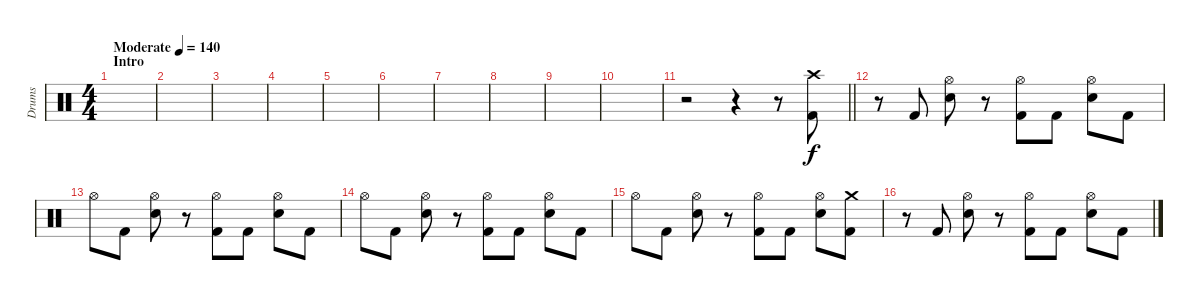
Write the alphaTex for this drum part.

\track ("Drums" "Drums") {instrument percussion}
\staff {score}
\articulation defaults
\ts (4 4)
\section ("" "Intro")
\tempo (140 "Moderate")
\clef neutral
\ks c
|
|
|
|
|
|
|
|
|
|
\barLineRight lightlight
r.2 r.4 r.8 ("Crash high (hit)" "Kick (hit) 2").8 |
\section ("" "")
r.8 "Kick (hit) 2".8 ("Hi-Hat (open)" "Electric Snare (hit)").8 r.8 ("Hi-Hat (open)" "Kick (hit) 2").8 "Kick (hit) 2".8 ("Hi-Hat (open)" "Electric Snare (hit)").8 "Kick (hit) 2".8 |
"Hi-Hat (open)".8 "Kick (hit) 2".8 ("Hi-Hat (open)" "Electric Snare (hit)").8 r.8 ("Hi-Hat (open)" "Kick (hit) 2").8 "Kick (hit) 2".8 ("Hi-Hat (open)" "Electric Snare (hit)").8 "Kick (hit) 2".8 |
"Hi-Hat (open)".8 "Kick (hit) 2".8 ("Hi-Hat (open)" "Electric Snare (hit)").8 r.8 ("Hi-Hat (open)" "Kick (hit) 2").8 "Kick (hit) 2".8 ("Hi-Hat (open)" "Electric Snare (hit)").8 "Kick (hit) 2".8 |
"Hi-Hat (open)".8 "Kick (hit) 2".8 ("Hi-Hat (open)" "Electric Snare (hit)").8 r.8 ("Hi-Hat (open)" "Kick (hit) 2").8 "Kick (hit) 2".8 ("Hi-Hat (open)" "Electric Snare (hit)").8 ("Crash medium (hit)" "Kick (hit) 2").8 |
r.8 "Kick (hit) 2".8 ("Hi-Hat (open)" "Electric Snare (hit)").8 r.8 ("Hi-Hat (open)" "Kick (hit) 2").8 "Kick (hit) 2".8 ("Hi-Hat (open)" "Electric Snare (hit)").8 "Kick (hit) 2".8
